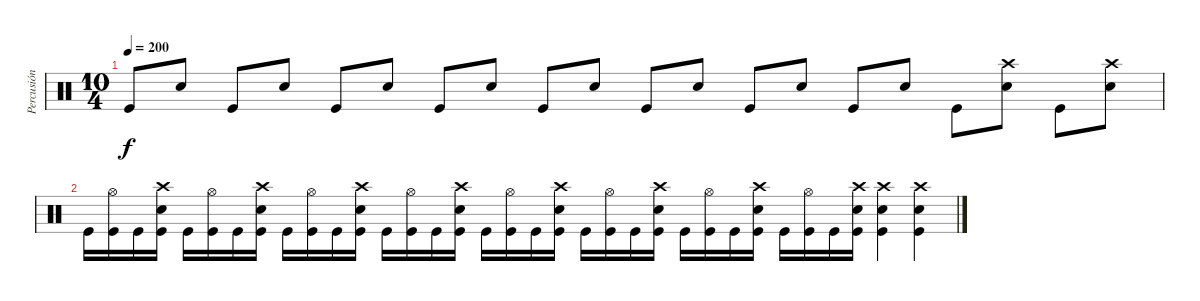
\track ("Percusión" "Percusión") {instrument percussion}
\staff {score}
\articulation defaults
\ts (10 4)
\tempo 200
\clef neutral
\ks c "Kick (hit)".8{dy f} "Snare (hit) 2".8 "Kick (hit)".8 "Snare (hit) 2".8 "Kick (hit)".8 "Snare (hit) 2".8 "Kick (hit)".8 "Snare (hit) 2".8 "Kick (hit)".8 "Snare (hit) 2".8 "Kick (hit)".8 "Snare (hit) 2".8 "Kick (hit)".8 "Snare (hit) 2".8 "Kick (hit)".8 "Snare (hit) 2".8 "Kick (hit)".8
("Crash high (hit)" "Snare (hit) 2").8 "Kick (hit)".8 ("Crash high (hit)" "Snare (hit) 2").8 |
"Kick (hit)".16 ("Hi-Hat (open)" "Kick (hit)").16 "Kick (hit)".16 ("Crash high (hit)" "Snare (hit) 2" "Kick (hit)").16 "Kick (hit)".16 ("Hi-Hat (open)" "Kick (hit)").16 "Kick (hit)".16 ("Crash high (hit)" "Snare (hit) 2" "Kick (hit)").16 "Kick (hit)".16 ("Hi-Hat (open)" "Kick (hit)").16 "Kick (hit)".16 ("Crash high (hit)" "Snare (hit) 2" "Kick (hit)").16 "Kick (hit)".16 ("Hi-Hat (open)" "Kick (hit)").16 "Kick (hit)".16 ("Crash high (hit)" "Snare (hit) 2" "Kick (hit)").16 "Kick (hit)".16 ("Hi-Hat (open)" "Kick (hit)").16 "Kick (hit)".16 ("Crash high (hit)" "Snare (hit) 2" "Kick (hit)").16 "Kick (hit)".16 ("Hi-Hat (open)" "Kick (hit)").16 "Kick (hit)".16 ("Crash high (hit)" "Snare (hit) 2" "Kick (hit)").16 "Kick (hit)".16 ("Hi-Hat (open)" "Kick (hit)").16 "Kick (hit)".16 ("Crash high (hit)" "Snare (hit) 2" "Kick (hit)").16 "Kick (hit)".16 ("Hi-Hat (open)" "Kick (hit)").16 "Kick (hit)".16 ("Crash high (hit)" "Snare (hit) 2" "Kick (hit)").16 ("Crash high (hit)" "Snare (hit) 2" "Kick (hit)").4 ("Crash high (hit)" "Snare (hit) 2" "Kick (hit)").4
